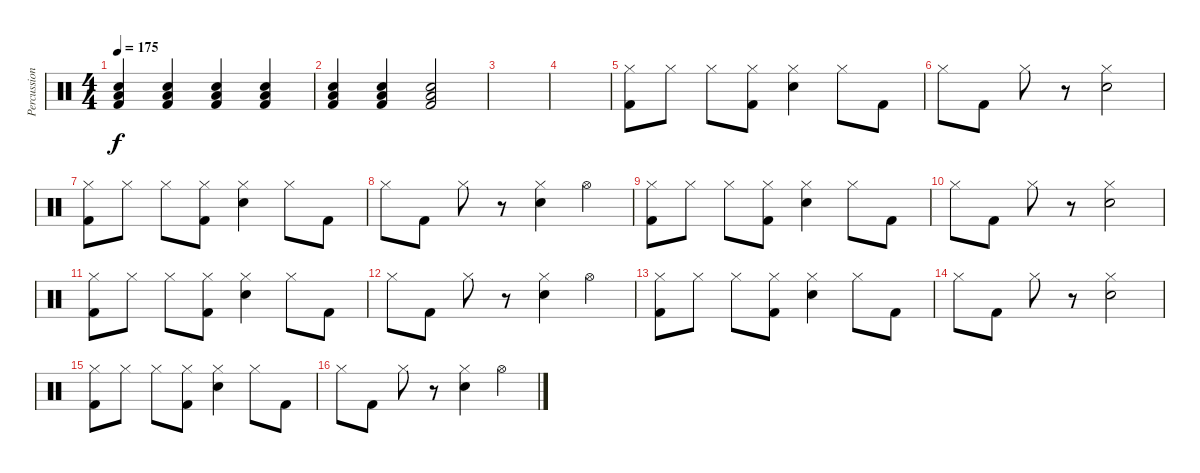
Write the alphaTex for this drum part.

\track ("Percussion" "Percussion") {instrument percussion}
\staff {score}
\articulation defaults
\ts (4 4)
\tempo 175
\clef neutral
\ks c
("Low Tom (hit)" "Snare (hit) 2" "Kick (hit) 2").4{dy f} ("Low Tom (hit)" "Snare (hit) 2" "Kick (hit) 2").4 ("Low Tom (hit)" "Snare (hit) 2" "Kick (hit) 2").4 ("Low Tom (hit)" "Snare (hit) 2" "Kick (hit) 2").4 |
("Low Tom (hit)" "Snare (hit) 2" "Kick (hit) 2").4 ("Low Tom (hit)" "Snare (hit) 2" "Kick (hit) 2").4 ("Low Tom (hit)" "Snare (hit) 2" "Kick (hit) 2").2 |
|
|
("Hi-Hat (closed)" "Kick (hit) 2").8 "Hi-Hat (closed)".8 "Hi-Hat (closed)".8 ("Hi-Hat (closed)" "Kick (hit) 2").8 ("Hi-Hat (closed)" "Snare (hit) 2").4 "Hi-Hat (closed)".8 "Kick (hit) 2".8 |
"Hi-Hat (closed)".8 "Kick (hit) 2".8 "Hi-Hat (closed)".8 r.8 ("Hi-Hat (closed)" "Snare (hit) 2").2 |
("Hi-Hat (closed)" "Kick (hit) 2").8 "Hi-Hat (closed)".8 "Hi-Hat (closed)".8 ("Hi-Hat (closed)" "Kick (hit) 2").8 ("Hi-Hat (closed)" "Snare (hit) 2").4 "Hi-Hat (closed)".8 "Kick (hit) 2".8 |
"Hi-Hat (closed)".8 "Kick (hit) 2".8 "Hi-Hat (closed)".8 r.8 ("Hi-Hat (closed)" "Snare (hit) 2").4 "Hi-Hat (open)".4 |
("Hi-Hat (closed)" "Kick (hit) 2").8 "Hi-Hat (closed)".8 "Hi-Hat (closed)".8 ("Hi-Hat (closed)" "Kick (hit) 2").8 ("Hi-Hat (closed)" "Snare (hit) 2").4 "Hi-Hat (closed)".8 "Kick (hit) 2".8 |
"Hi-Hat (closed)".8 "Kick (hit) 2".8 "Hi-Hat (closed)".8 r.8 ("Hi-Hat (closed)" "Snare (hit) 2").2 |
("Hi-Hat (closed)" "Kick (hit) 2").8 "Hi-Hat (closed)".8 "Hi-Hat (closed)".8 ("Hi-Hat (closed)" "Kick (hit) 2").8 ("Hi-Hat (closed)" "Snare (hit) 2").4 "Hi-Hat (closed)".8 "Kick (hit) 2".8 |
"Hi-Hat (closed)".8 "Kick (hit) 2".8 "Hi-Hat (closed)".8 r.8 ("Hi-Hat (closed)" "Snare (hit) 2").4 "Hi-Hat (open)".4 |
("Hi-Hat (closed)" "Kick (hit) 2").8 "Hi-Hat (closed)".8 "Hi-Hat (closed)".8 ("Hi-Hat (closed)" "Kick (hit) 2").8 ("Hi-Hat (closed)" "Snare (hit) 2").4 "Hi-Hat (closed)".8 "Kick (hit) 2".8 |
"Hi-Hat (closed)".8 "Kick (hit) 2".8 "Hi-Hat (closed)".8 r.8 ("Hi-Hat (closed)" "Snare (hit) 2").2 |
("Hi-Hat (closed)" "Kick (hit) 2").8 "Hi-Hat (closed)".8 "Hi-Hat (closed)".8 ("Hi-Hat (closed)" "Kick (hit) 2").8 ("Hi-Hat (closed)" "Snare (hit) 2").4 "Hi-Hat (closed)".8 "Kick (hit) 2".8 |
"Hi-Hat (closed)".8 "Kick (hit) 2".8 "Hi-Hat (closed)".8 r.8 ("Hi-Hat (closed)" "Snare (hit) 2").4 "Hi-Hat (open)".4
